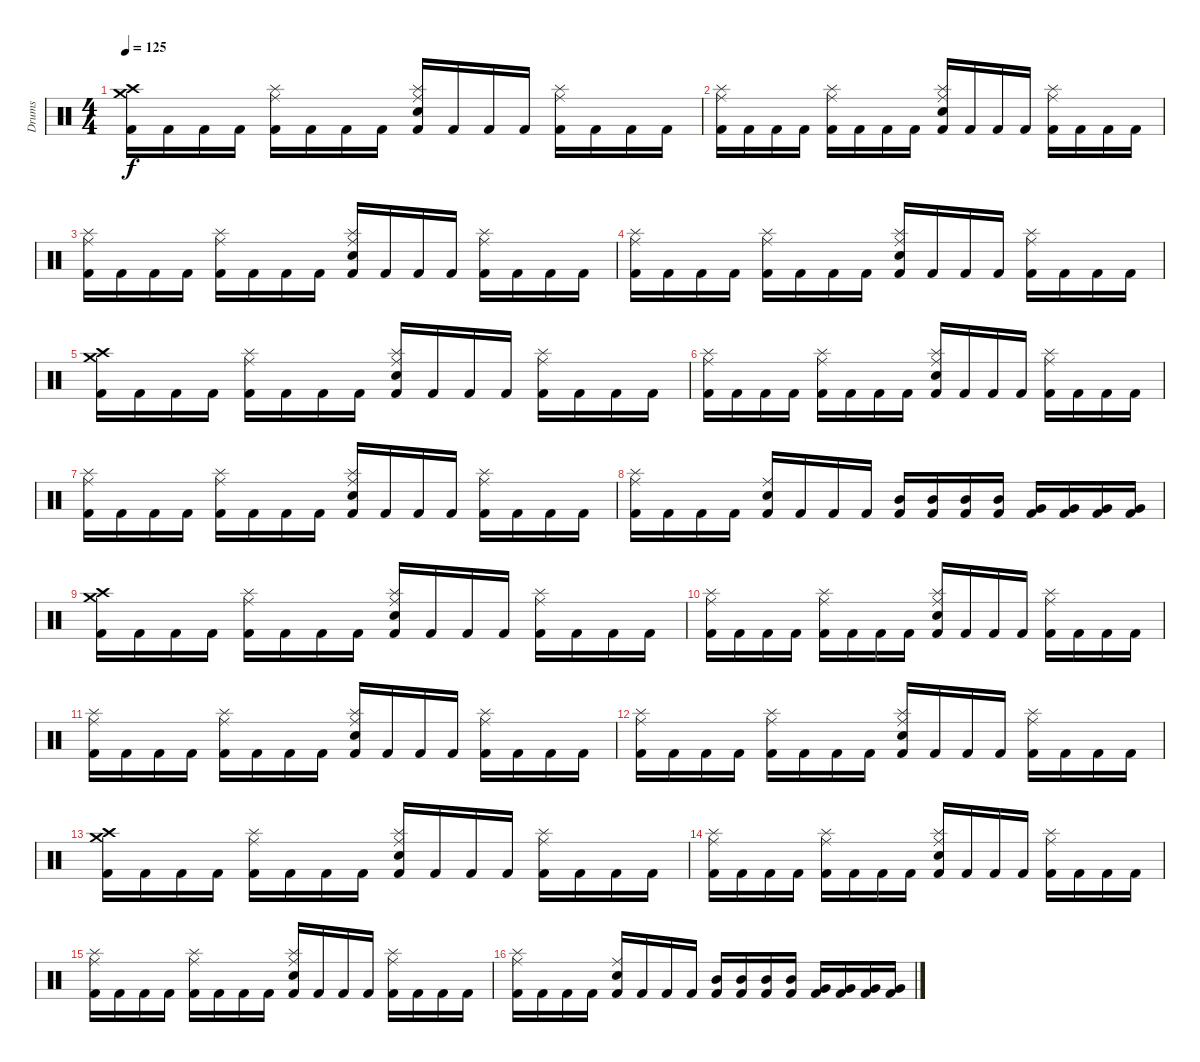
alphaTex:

\track ("Drums" "Drums") {instrument percussion}
\staff {score}
\articulation defaults
\ts (4 4)
\tempo 125
\clef neutral
\ks c
("Crash high (hit)" "Crash medium (hit)" "Kick (hit) 2").16{dy f} "Kick (hit) 2".16 "Kick (hit) 2".16 "Kick (hit) 2".16 ("Ride (middle)" "Splash (hit)" "Kick (hit) 2").16 "Kick (hit) 2".16 "Kick (hit) 2".16 "Kick (hit) 2".16 ("Ride (middle)" "Snare (hit) 2" "Splash (hit)" "Kick (hit) 2").16 "Kick (hit) 2".16 "Kick (hit) 2".16 "Kick (hit) 2".16 ("Ride (middle)" "Splash (hit)" "Kick (hit) 2").16 "Kick (hit) 2".16 "Kick (hit) 2".16 "Kick (hit) 2".16 |
("Ride (middle)" "Splash (hit)" "Kick (hit) 2").16 "Kick (hit) 2".16 "Kick (hit) 2".16 "Kick (hit) 2".16 ("Ride (middle)" "Splash (hit)" "Kick (hit) 2").16 "Kick (hit) 2".16 "Kick (hit) 2".16 "Kick (hit) 2".16 ("Ride (middle)" "Snare (hit) 2" "Splash (hit)" "Kick (hit) 2").16 "Kick (hit) 2".16 "Kick (hit) 2".16 "Kick (hit) 2".16 ("Ride (middle)" "Splash (hit)" "Kick (hit) 2").16 "Kick (hit) 2".16 "Kick (hit) 2".16 "Kick (hit) 2".16 |
("Ride (middle)" "Splash (hit)" "Kick (hit) 2").16 "Kick (hit) 2".16 "Kick (hit) 2".16 "Kick (hit) 2".16 ("Ride (middle)" "Splash (hit)" "Kick (hit) 2").16 "Kick (hit) 2".16 "Kick (hit) 2".16 "Kick (hit) 2".16 ("Ride (middle)" "Snare (hit) 2" "Splash (hit)" "Kick (hit) 2").16 "Kick (hit) 2".16 "Kick (hit) 2".16 "Kick (hit) 2".16 ("Ride (middle)" "Splash (hit)" "Kick (hit) 2").16 "Kick (hit) 2".16 "Kick (hit) 2".16 "Kick (hit) 2".16 |
("Ride (middle)" "Splash (hit)" "Kick (hit) 2").16 "Kick (hit) 2".16 "Kick (hit) 2".16 "Kick (hit) 2".16 ("Ride (middle)" "Splash (hit)" "Kick (hit) 2").16 "Kick (hit) 2".16 "Kick (hit) 2".16 "Kick (hit) 2".16 ("Ride (middle)" "Snare (hit) 2" "Splash (hit)" "Kick (hit) 2").16 "Kick (hit) 2".16 "Kick (hit) 2".16 "Kick (hit) 2".16 ("Ride (middle)" "Splash (hit)" "Kick (hit) 2").16 "Kick (hit) 2".16 "Kick (hit) 2".16 "Kick (hit) 2".16 |
("Crash high (hit)" "Crash medium (hit)" "Kick (hit) 2").16 "Kick (hit) 2".16 "Kick (hit) 2".16 "Kick (hit) 2".16 ("Ride (middle)" "Splash (hit)" "Kick (hit) 2").16 "Kick (hit) 2".16 "Kick (hit) 2".16 "Kick (hit) 2".16 ("Ride (middle)" "Snare (hit) 2" "Splash (hit)" "Kick (hit) 2").16 "Kick (hit) 2".16 "Kick (hit) 2".16 "Kick (hit) 2".16 ("Ride (middle)" "Splash (hit)" "Kick (hit) 2").16 "Kick (hit) 2".16 "Kick (hit) 2".16 "Kick (hit) 2".16 |
("Ride (middle)" "Splash (hit)" "Kick (hit) 2").16 "Kick (hit) 2".16 "Kick (hit) 2".16 "Kick (hit) 2".16 ("Ride (middle)" "Splash (hit)" "Kick (hit) 2").16 "Kick (hit) 2".16 "Kick (hit) 2".16 "Kick (hit) 2".16 ("Ride (middle)" "Snare (hit) 2" "Splash (hit)" "Kick (hit) 2").16 "Kick (hit) 2".16 "Kick (hit) 2".16 "Kick (hit) 2".16 ("Ride (middle)" "Splash (hit)" "Kick (hit) 2").16 "Kick (hit) 2".16 "Kick (hit) 2".16 "Kick (hit) 2".16 |
("Ride (middle)" "Splash (hit)" "Kick (hit) 2").16 "Kick (hit) 2".16 "Kick (hit) 2".16 "Kick (hit) 2".16 ("Ride (middle)" "Splash (hit)" "Kick (hit) 2").16 "Kick (hit) 2".16 "Kick (hit) 2".16 "Kick (hit) 2".16 ("Ride (middle)" "Snare (hit) 2" "Splash (hit)" "Kick (hit) 2").16 "Kick (hit) 2".16 "Kick (hit) 2".16 "Kick (hit) 2".16 ("Ride (middle)" "Splash (hit)" "Kick (hit) 2").16 "Kick (hit) 2".16 "Kick (hit) 2".16 "Kick (hit) 2".16 |
("Ride (middle)" "Splash (hit)" "Kick (hit) 2").16 "Kick (hit) 2".16 "Kick (hit) 2".16 "Kick (hit) 2".16 ("Ride (middle)" "Snare (hit) 2" "Kick (hit) 2").16 "Kick (hit) 2".16 "Kick (hit) 2".16 "Kick (hit) 2".16 ("Mid Tom (hit)" "Kick (hit) 2").16 ("Mid Tom (hit)" "Kick (hit) 2").16 ("Mid Tom (hit)" "Kick (hit) 2").16 ("Mid Tom (hit)" "Kick (hit) 2").16 ("Very Low Tom (hit)" "Kick (hit) 2").16 ("Very Low Tom (hit)" "Kick (hit) 2").16 ("Very Low Tom (hit)" "Kick (hit) 2").16 ("Very Low Tom (hit)" "Kick (hit) 2").16 |
("Crash high (hit)" "Crash medium (hit)" "Kick (hit) 2").16 "Kick (hit) 2".16 "Kick (hit) 2".16 "Kick (hit) 2".16 ("Ride (middle)" "Splash (hit)" "Kick (hit) 2").16 "Kick (hit) 2".16 "Kick (hit) 2".16 "Kick (hit) 2".16 ("Ride (middle)" "Snare (hit) 2" "Splash (hit)" "Kick (hit) 2").16 "Kick (hit) 2".16 "Kick (hit) 2".16 "Kick (hit) 2".16 ("Ride (middle)" "Splash (hit)" "Kick (hit) 2").16 "Kick (hit) 2".16 "Kick (hit) 2".16 "Kick (hit) 2".16 |
("Ride (middle)" "Splash (hit)" "Kick (hit) 2").16 "Kick (hit) 2".16 "Kick (hit) 2".16 "Kick (hit) 2".16 ("Ride (middle)" "Splash (hit)" "Kick (hit) 2").16 "Kick (hit) 2".16 "Kick (hit) 2".16 "Kick (hit) 2".16 ("Ride (middle)" "Snare (hit) 2" "Splash (hit)" "Kick (hit) 2").16 "Kick (hit) 2".16 "Kick (hit) 2".16 "Kick (hit) 2".16 ("Ride (middle)" "Splash (hit)" "Kick (hit) 2").16 "Kick (hit) 2".16 "Kick (hit) 2".16 "Kick (hit) 2".16 |
("Ride (middle)" "Splash (hit)" "Kick (hit) 2").16 "Kick (hit) 2".16 "Kick (hit) 2".16 "Kick (hit) 2".16 ("Ride (middle)" "Splash (hit)" "Kick (hit) 2").16 "Kick (hit) 2".16 "Kick (hit) 2".16 "Kick (hit) 2".16 ("Ride (middle)" "Snare (hit) 2" "Splash (hit)" "Kick (hit) 2").16 "Kick (hit) 2".16 "Kick (hit) 2".16 "Kick (hit) 2".16 ("Ride (middle)" "Splash (hit)" "Kick (hit) 2").16 "Kick (hit) 2".16 "Kick (hit) 2".16 "Kick (hit) 2".16 |
("Ride (middle)" "Splash (hit)" "Kick (hit) 2").16 "Kick (hit) 2".16 "Kick (hit) 2".16 "Kick (hit) 2".16 ("Ride (middle)" "Splash (hit)" "Kick (hit) 2").16 "Kick (hit) 2".16 "Kick (hit) 2".16 "Kick (hit) 2".16 ("Ride (middle)" "Snare (hit) 2" "Splash (hit)" "Kick (hit) 2").16 "Kick (hit) 2".16 "Kick (hit) 2".16 "Kick (hit) 2".16 ("Ride (middle)" "Splash (hit)" "Kick (hit) 2").16 "Kick (hit) 2".16 "Kick (hit) 2".16 "Kick (hit) 2".16 |
("Crash high (hit)" "Crash medium (hit)" "Kick (hit) 2").16 "Kick (hit) 2".16 "Kick (hit) 2".16 "Kick (hit) 2".16 ("Ride (middle)" "Splash (hit)" "Kick (hit) 2").16 "Kick (hit) 2".16 "Kick (hit) 2".16 "Kick (hit) 2".16 ("Ride (middle)" "Snare (hit) 2" "Splash (hit)" "Kick (hit) 2").16 "Kick (hit) 2".16 "Kick (hit) 2".16 "Kick (hit) 2".16 ("Ride (middle)" "Splash (hit)" "Kick (hit) 2").16 "Kick (hit) 2".16 "Kick (hit) 2".16 "Kick (hit) 2".16 |
("Ride (middle)" "Splash (hit)" "Kick (hit) 2").16 "Kick (hit) 2".16 "Kick (hit) 2".16 "Kick (hit) 2".16 ("Ride (middle)" "Splash (hit)" "Kick (hit) 2").16 "Kick (hit) 2".16 "Kick (hit) 2".16 "Kick (hit) 2".16 ("Ride (middle)" "Snare (hit) 2" "Splash (hit)" "Kick (hit) 2").16 "Kick (hit) 2".16 "Kick (hit) 2".16 "Kick (hit) 2".16 ("Ride (middle)" "Splash (hit)" "Kick (hit) 2").16 "Kick (hit) 2".16 "Kick (hit) 2".16 "Kick (hit) 2".16 |
("Ride (middle)" "Splash (hit)" "Kick (hit) 2").16 "Kick (hit) 2".16 "Kick (hit) 2".16 "Kick (hit) 2".16 ("Ride (middle)" "Splash (hit)" "Kick (hit) 2").16 "Kick (hit) 2".16 "Kick (hit) 2".16 "Kick (hit) 2".16 ("Ride (middle)" "Snare (hit) 2" "Splash (hit)" "Kick (hit) 2").16 "Kick (hit) 2".16 "Kick (hit) 2".16 "Kick (hit) 2".16 ("Ride (middle)" "Splash (hit)" "Kick (hit) 2").16 "Kick (hit) 2".16 "Kick (hit) 2".16 "Kick (hit) 2".16 |
("Ride (middle)" "Splash (hit)" "Kick (hit) 2").16 "Kick (hit) 2".16 "Kick (hit) 2".16 "Kick (hit) 2".16 ("Ride (middle)" "Snare (hit) 2" "Kick (hit) 2").16 "Kick (hit) 2".16 "Kick (hit) 2".16 "Kick (hit) 2".16 ("Mid Tom (hit)" "Kick (hit) 2").16 ("Mid Tom (hit)" "Kick (hit) 2").16 ("Mid Tom (hit)" "Kick (hit) 2").16 ("Mid Tom (hit)" "Kick (hit) 2").16 ("Very Low Tom (hit)" "Kick (hit) 2").16 ("Very Low Tom (hit)" "Kick (hit) 2").16 ("Very Low Tom (hit)" "Kick (hit) 2").16 ("Very Low Tom (hit)" "Kick (hit) 2").16
